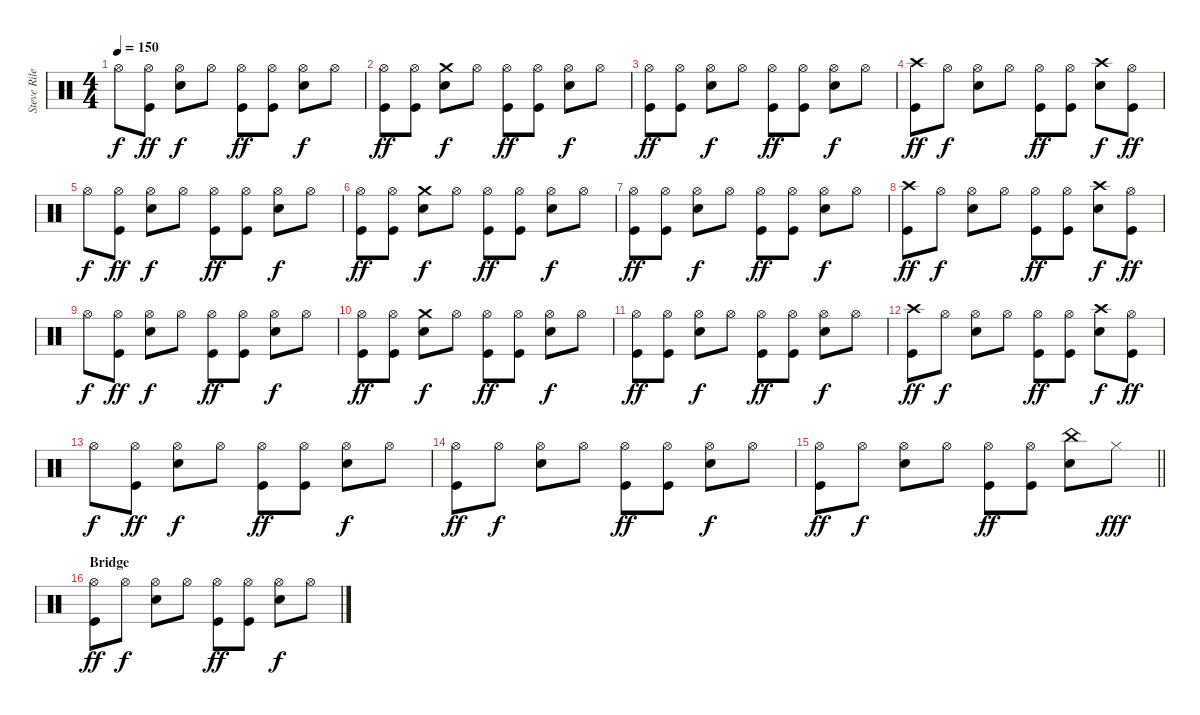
\track ("Steve Riley" "Steve Rile") {instrument percussion}
\staff {score}
\articulation defaults
\ts (4 4)
\tempo 150
\clef neutral
\ks c "Hi-Hat (open)".8{dy f}
("Hi-Hat (open)" "Kick (hit)").8{dy ff} ("Hi-Hat (open)" "Snare (hit) 2").8{dy f} "Hi-Hat (open)".8 ("Hi-Hat (open)" "Kick (hit)").8{dy ff} ("Hi-Hat (open)" "Kick (hit)").8 ("Hi-Hat (open)" "Snare (hit) 2").8{dy f} "Hi-Hat (open)".8 |
("Hi-Hat (open)" "Kick (hit)").8{dy ff} ("Hi-Hat (open)" "Kick (hit)").8 ("Crash medium (hit)" "Snare (hit) 2").8{dy f} "Hi-Hat (open)".8 ("Hi-Hat (open)" "Kick (hit)").8{dy ff} ("Hi-Hat (open)" "Kick (hit)").8 ("Hi-Hat (open)" "Snare (hit) 2").8{dy f} "Hi-Hat (open)".8 |
("Hi-Hat (open)" "Kick (hit)").8{dy ff} ("Hi-Hat (open)" "Kick (hit)").8 ("Hi-Hat (open)" "Snare (hit) 2").8{dy f} "Hi-Hat (open)".8 ("Hi-Hat (open)" "Kick (hit)").8{dy ff} ("Hi-Hat (open)" "Kick (hit)").8 ("Hi-Hat (open)" "Snare (hit) 2").8{dy f} "Hi-Hat (open)".8 |
("Crash high (hit)" "Kick (hit)").8{dy ff} "Hi-Hat (open)".8{dy f} ("Hi-Hat (open)" "Snare (hit) 2").8 "Hi-Hat (open)".8 ("Hi-Hat (open)" "Kick (hit)").8{dy ff} ("Hi-Hat (open)" "Kick (hit)").8 ("Crash high (hit)" "Snare (hit) 2").8{dy f} ("Hi-Hat (open)" "Kick (hit)").8{dy ff} |
"Hi-Hat (open)".8{dy f} ("Hi-Hat (open)" "Kick (hit)").8{dy ff} ("Hi-Hat (open)" "Snare (hit) 2").8{dy f} "Hi-Hat (open)".8 ("Hi-Hat (open)" "Kick (hit)").8{dy ff} ("Hi-Hat (open)" "Kick (hit)").8 ("Hi-Hat (open)" "Snare (hit) 2").8{dy f} "Hi-Hat (open)".8 |
("Hi-Hat (open)" "Kick (hit)").8{dy ff} ("Hi-Hat (open)" "Kick (hit)").8 ("Crash medium (hit)" "Snare (hit) 2").8{dy f} "Hi-Hat (open)".8 ("Hi-Hat (open)" "Kick (hit)").8{dy ff} ("Hi-Hat (open)" "Kick (hit)").8 ("Hi-Hat (open)" "Snare (hit) 2").8{dy f} "Hi-Hat (open)".8 |
("Hi-Hat (open)" "Kick (hit)").8{dy ff} ("Hi-Hat (open)" "Kick (hit)").8 ("Hi-Hat (open)" "Snare (hit) 2").8{dy f} "Hi-Hat (open)".8 ("Hi-Hat (open)" "Kick (hit)").8{dy ff} ("Hi-Hat (open)" "Kick (hit)").8 ("Hi-Hat (open)" "Snare (hit) 2").8{dy f} "Hi-Hat (open)".8 |
("Crash high (hit)" "Kick (hit)").8{dy ff} "Hi-Hat (open)".8{dy f} ("Hi-Hat (open)" "Snare (hit) 2").8 "Hi-Hat (open)".8 ("Hi-Hat (open)" "Kick (hit)").8{dy ff} ("Hi-Hat (open)" "Kick (hit)").8 ("Crash high (hit)" "Snare (hit) 2").8{dy f} ("Hi-Hat (open)" "Kick (hit)").8{dy ff} |
"Hi-Hat (open)".8{dy f} ("Hi-Hat (open)" "Kick (hit)").8{dy ff} ("Hi-Hat (open)" "Snare (hit) 2").8{dy f} "Hi-Hat (open)".8 ("Hi-Hat (open)" "Kick (hit)").8{dy ff} ("Hi-Hat (open)" "Kick (hit)").8 ("Hi-Hat (open)" "Snare (hit) 2").8{dy f} "Hi-Hat (open)".8 |
("Hi-Hat (open)" "Kick (hit)").8{dy ff} ("Hi-Hat (open)" "Kick (hit)").8 ("Crash medium (hit)" "Snare (hit) 2").8{dy f} "Hi-Hat (open)".8 ("Hi-Hat (open)" "Kick (hit)").8{dy ff} ("Hi-Hat (open)" "Kick (hit)").8 ("Hi-Hat (open)" "Snare (hit) 2").8{dy f} "Hi-Hat (open)".8 |
("Hi-Hat (open)" "Kick (hit)").8{dy ff} ("Hi-Hat (open)" "Kick (hit)").8 ("Hi-Hat (open)" "Snare (hit) 2").8{dy f} "Hi-Hat (open)".8 ("Hi-Hat (open)" "Kick (hit)").8{dy ff} ("Hi-Hat (open)" "Kick (hit)").8 ("Hi-Hat (open)" "Snare (hit) 2").8{dy f} "Hi-Hat (open)".8 |
("Crash high (hit)" "Kick (hit)").8{dy ff} "Hi-Hat (open)".8{dy f} ("Hi-Hat (open)" "Snare (hit) 2").8 "Hi-Hat (open)".8 ("Hi-Hat (open)" "Kick (hit)").8{dy ff} ("Hi-Hat (open)" "Kick (hit)").8 ("Crash high (hit)" "Snare (hit) 2").8{dy f} ("Hi-Hat (open)" "Kick (hit)").8{dy ff} |
"Hi-Hat (open)".8{dy f} ("Hi-Hat (open)" "Kick (hit)").8{dy ff} ("Hi-Hat (open)" "Snare (hit) 2").8{dy f} "Hi-Hat (open)".8 ("Hi-Hat (open)" "Kick (hit)").8{dy ff} ("Hi-Hat (open)" "Kick (hit)").8 ("Hi-Hat (open)" "Snare (hit) 2").8{dy f} "Hi-Hat (open)".8 |
("Hi-Hat (open)" "Kick (hit)").8{dy ff} "Hi-Hat (open)".8{dy f} ("Hi-Hat (open)" "Snare (hit) 2").8 "Hi-Hat (open)".8 ("Hi-Hat (open)" "Kick (hit)").8{dy ff} ("Hi-Hat (open)" "Kick (hit)").8 ("Hi-Hat (open)" "Snare (hit) 2").8{dy f} "Hi-Hat (open)".8 |
\barLineRight lightlight
("Hi-Hat (open)" "Kick (hit)").8{dy ff} "Hi-Hat (open)".8{dy f} ("Hi-Hat (open)" "Snare (hit) 2").8 "Hi-Hat (open)".8 ("Hi-Hat (open)" "Kick (hit)").8{dy ff} ("Hi-Hat (open)" "Kick (hit)").8 ("China (hit)" "Snare (hit) 2").8 "Hi-Hat (closed)".8{dy fff} |
\section ("" "Bridge")
("Hi-Hat (open)" "Kick (hit)").8{dy ff} "Hi-Hat (open)".8{dy f} ("Hi-Hat (open)" "Snare (hit) 2").8 "Hi-Hat (open)".8 ("Hi-Hat (open)" "Kick (hit)").8{dy ff} ("Hi-Hat (open)" "Kick (hit)").8 ("Hi-Hat (open)" "Snare (hit) 2").8{dy f} "Hi-Hat (open)".8
